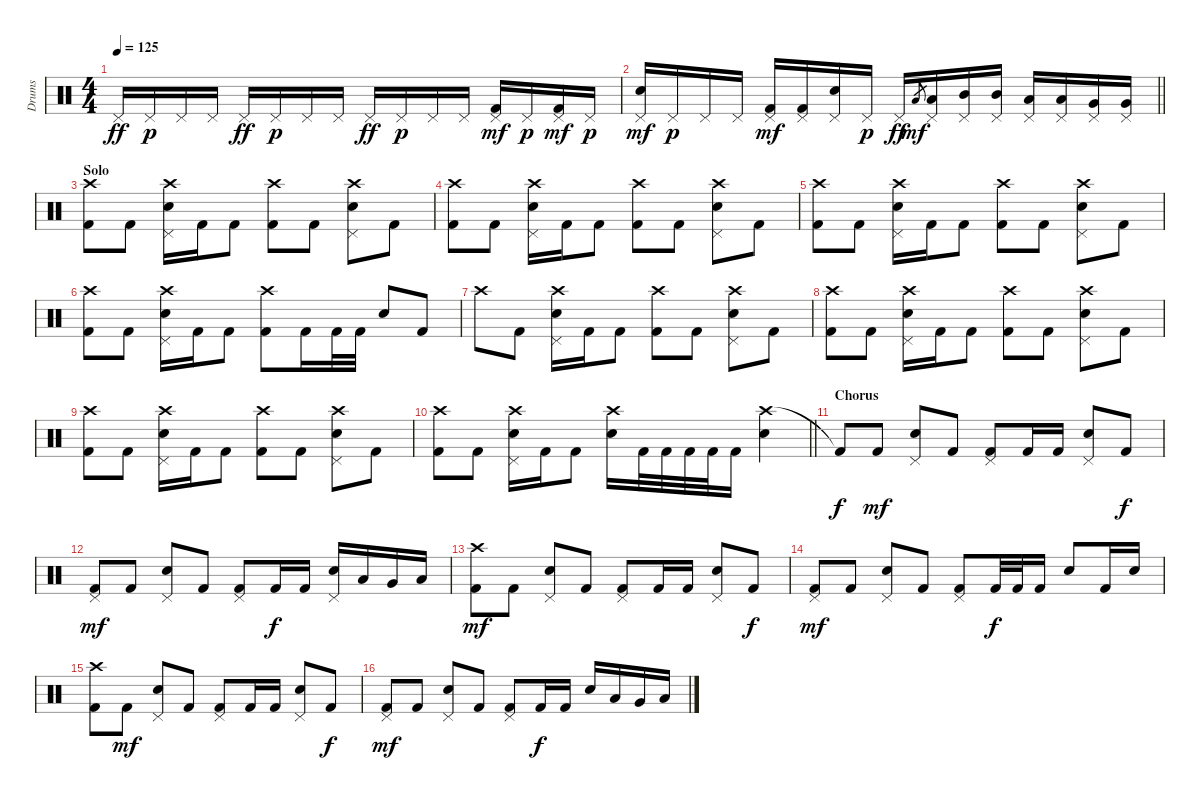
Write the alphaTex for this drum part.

\track ("Drums" "Drums") {instrument percussion}
\staff {score}
\articulation defaults
\ts (4 4)
\tempo 125
\clef neutral
\ks c "Pedal Hi-Hat (hit)".16{dy ff} "Pedal Hi-Hat (hit)".16{dy p} "Pedal Hi-Hat (hit)".16 "Pedal Hi-Hat (hit)".16 "Pedal Hi-Hat (hit)".16{dy ff} "Pedal Hi-Hat (hit)".16{dy p} "Pedal Hi-Hat (hit)".16 "Pedal Hi-Hat (hit)".16 "Pedal Hi-Hat (hit)".16{dy ff} "Pedal Hi-Hat (hit)".16{dy p} "Pedal Hi-Hat (hit)".16 "Pedal Hi-Hat (hit)".16
("Pedal Hi-Hat (hit)" "Kick (hit) 2").16{dy mf} "Pedal Hi-Hat (hit)".16{dy p} ("Pedal Hi-Hat (hit)" "Kick (hit) 2").16{dy mf} "Pedal Hi-Hat (hit)".16{dy p} |
\barLineRight lightlight
("Pedal Hi-Hat (hit)" "Snare (hit) 2").16{dy mf} "Pedal Hi-Hat (hit)".16{dy p} "Pedal Hi-Hat (hit)".16 "Pedal Hi-Hat (hit)".16 ("Pedal Hi-Hat (hit)" "Kick (hit) 2").16{dy mf} ("Pedal Hi-Hat (hit)" "Kick (hit) 2").16 ("Pedal Hi-Hat (hit)" "Snare (hit) 2").16 "Pedal Hi-Hat (hit)".16{dy p} "Pedal Hi-Hat (hit)".16{dy ff} "Low Tom (hit)".8{gr dy mf} ("Pedal Hi-Hat (hit)" "Low Tom (hit)").16 ("Pedal Hi-Hat (hit)" "Mid Tom (hit)").16 ("Pedal Hi-Hat (hit)" "Mid Tom (hit)").16 ("Pedal Hi-Hat (hit)" "Low Tom (hit)").16 ("Pedal Hi-Hat (hit)" "Low Tom (hit)").16 ("Pedal Hi-Hat (hit)" "Very Low Tom (hit)").16 ("Pedal Hi-Hat (hit)" "Very Low Tom (hit)").16 |
\section ("" "Solo")
("Crash high (hit)" "Kick (hit) 2").8 "Kick (hit) 2".8 ("Pedal Hi-Hat (hit)" "Crash high (hit)" "Snare (hit) 2").16 "Kick (hit) 2".16 "Kick (hit) 2".8 ("Crash high (hit)" "Kick (hit) 2").8 "Kick (hit) 2".8 ("Pedal Hi-Hat (hit)" "Crash high (hit)" "Snare (hit) 2").8 "Kick (hit) 2".8 |
("Crash high (hit)" "Kick (hit) 2").8 "Kick (hit) 2".8 ("Pedal Hi-Hat (hit)" "Crash high (hit)" "Snare (hit) 2").16 "Kick (hit) 2".16 "Kick (hit) 2".8 ("Crash high (hit)" "Kick (hit) 2").8 "Kick (hit) 2".8 ("Pedal Hi-Hat (hit)" "Crash high (hit)" "Snare (hit) 2").8 "Kick (hit) 2".8 |
("Crash high (hit)" "Kick (hit) 2").8 "Kick (hit) 2".8 ("Pedal Hi-Hat (hit)" "Crash high (hit)" "Snare (hit) 2").16 "Kick (hit) 2".16 "Kick (hit) 2".8 ("Crash high (hit)" "Kick (hit) 2").8 "Kick (hit) 2".8 ("Pedal Hi-Hat (hit)" "Crash high (hit)" "Snare (hit) 2").8 "Kick (hit) 2".8 |
("Crash high (hit)" "Kick (hit) 2").8 "Kick (hit) 2".8 ("Pedal Hi-Hat (hit)" "Crash high (hit)" "Snare (hit) 2").16 "Kick (hit) 2".16 "Kick (hit) 2".8 ("Crash high (hit)" "Kick (hit) 2").8 "Kick (hit) 2".16 "Kick (hit) 2".32 "Kick (hit) 2".32 "Snare (hit) 2".8 "Kick (hit) 2".8 |
"Crash high (hit)".8 "Kick (hit) 2".8 ("Pedal Hi-Hat (hit)" "Crash high (hit)" "Snare (hit) 2").16 "Kick (hit) 2".16 "Kick (hit) 2".8 ("Crash high (hit)" "Kick (hit) 2").8 "Kick (hit) 2".8 ("Pedal Hi-Hat (hit)" "Crash high (hit)" "Snare (hit) 2").8 "Kick (hit) 2".8 |
("Crash high (hit)" "Kick (hit) 2").8 "Kick (hit) 2".8 ("Pedal Hi-Hat (hit)" "Crash high (hit)" "Snare (hit) 2").16 "Kick (hit) 2".16 "Kick (hit) 2".8 ("Crash high (hit)" "Kick (hit) 2").8 "Kick (hit) 2".8 ("Pedal Hi-Hat (hit)" "Crash high (hit)" "Snare (hit) 2").8 "Kick (hit) 2".8 |
("Crash high (hit)" "Kick (hit) 2").8 "Kick (hit) 2".8 ("Pedal Hi-Hat (hit)" "Crash high (hit)" "Snare (hit) 2").16 "Kick (hit) 2".16 "Kick (hit) 2".8 ("Crash high (hit)" "Kick (hit) 2").8 "Kick (hit) 2".8 ("Pedal Hi-Hat (hit)" "Crash high (hit)" "Snare (hit) 2").8 "Kick (hit) 2".8 |
\barLineRight lightlight
("Crash high (hit)" "Kick (hit) 2").8 "Kick (hit) 2".8 ("Pedal Hi-Hat (hit)" "Crash high (hit)" "Snare (hit) 2").16 "Kick (hit) 2".16 "Kick (hit) 2".8 ("Crash high (hit)" "Snare (hit) 2").16 "Kick (hit) 2".32 "Kick (hit) 2".32 "Kick (hit) 2".32 "Kick (hit) 2".32 "Kick (hit) 2".16 ("Crash high (hit)" "Snare (hit) 2").4 |
\section ("" "Chorus")
"Kick (hit) 2"{t}.8{dy f} "Kick (hit) 2".8{dy mf} ("Pedal Hi-Hat (hit)" "Snare (hit) 2").8 "Kick (hit) 2".8 ("Pedal Hi-Hat (hit)" "Kick (hit) 2").8 "Kick (hit) 2".16 "Kick (hit) 2".16 ("Pedal Hi-Hat (hit)" "Snare (hit) 2").8 "Kick (hit) 2".8{dy f} |
("Pedal Hi-Hat (hit)" "Kick (hit) 2").8{dy mf} "Kick (hit) 2".8 ("Pedal Hi-Hat (hit)" "Snare (hit) 2").8 "Kick (hit) 2".8 ("Pedal Hi-Hat (hit)" "Kick (hit) 2").8 "Kick (hit) 2".16{dy f} "Kick (hit) 2".16 ("Pedal Hi-Hat (hit)" "Snare (hit) 2").16 "Low Tom (hit)".16 "Very Low Tom (hit)".16 "Low Tom (hit)".16 |
("Crash high (hit)" "Kick (hit) 2").8{dy mf} "Kick (hit) 2".8 ("Pedal Hi-Hat (hit)" "Snare (hit) 2").8 "Kick (hit) 2".8 ("Pedal Hi-Hat (hit)" "Kick (hit) 2").8 "Kick (hit) 2".16 "Kick (hit) 2".16 ("Pedal Hi-Hat (hit)" "Snare (hit) 2").8 "Kick (hit) 2".8{dy f} |
("Pedal Hi-Hat (hit)" "Kick (hit) 2").8{dy mf} "Kick (hit) 2".8 ("Pedal Hi-Hat (hit)" "Snare (hit) 2").8 "Kick (hit) 2".8 ("Pedal Hi-Hat (hit)" "Kick (hit) 2").8 "Kick (hit) 2".32{dy f} "Kick (hit) 2".32 "Kick (hit) 2".16 "Snare (hit) 2".8 "Kick (hit) 2".16 "Snare (hit) 2".16 |
("Crash high (hit)" "Kick (hit) 2").8 "Kick (hit) 2".8{dy mf} ("Pedal Hi-Hat (hit)" "Snare (hit) 2").8 "Kick (hit) 2".8 ("Pedal Hi-Hat (hit)" "Kick (hit) 2").8 "Kick (hit) 2".16 "Kick (hit) 2".16 ("Pedal Hi-Hat (hit)" "Snare (hit) 2").8 "Kick (hit) 2".8{dy f} |
("Pedal Hi-Hat (hit)" "Kick (hit) 2").8{dy mf} "Kick (hit) 2".8 ("Pedal Hi-Hat (hit)" "Snare (hit) 2").8 "Kick (hit) 2".8 ("Pedal Hi-Hat (hit)" "Kick (hit) 2").8 "Kick (hit) 2".16{dy f} "Kick (hit) 2".16 "Snare (hit) 2".16 "Low Tom (hit)".16 "Very Low Tom (hit)".16 "Low Tom (hit)".16
